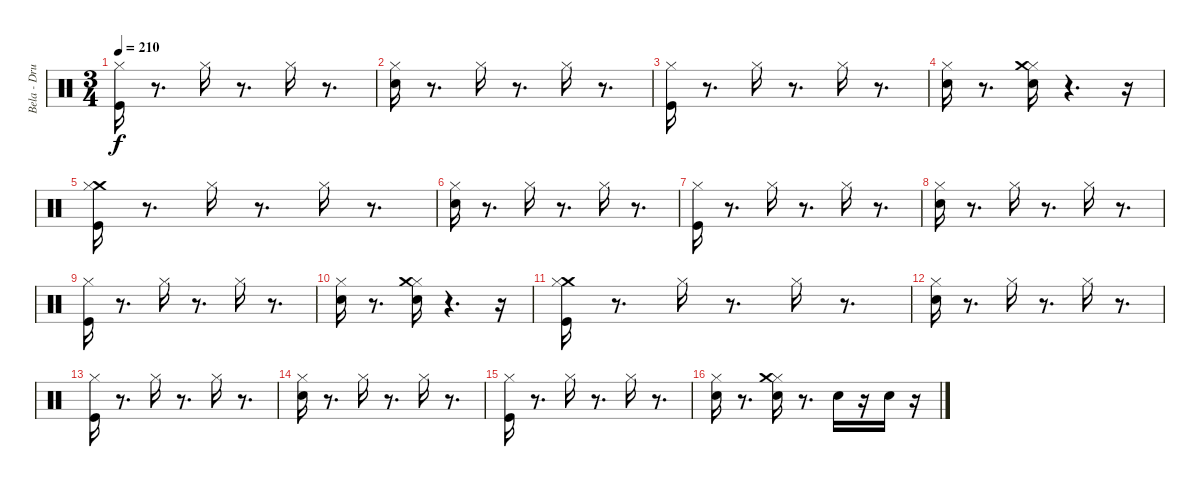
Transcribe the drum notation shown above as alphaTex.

\track ("Bela - Drums" "Bela - Dru") {instrument percussion}
\staff {score}
\articulation defaults
\ts (3 4)
\tempo 210
\clef neutral
\ks c
("Kick (hit)" "Hi-Hat (closed)").16{dy f} r.8{d} "Hi-Hat (closed)".16 r.8{d} "Hi-Hat (closed)".16 r.8{d} |
("Hi-Hat (closed)" "Electric Snare (hit)").16 r.8{d} "Hi-Hat (closed)".16 r.8{d} "Hi-Hat (closed)".16 r.8{d} |
("Kick (hit)" "Hi-Hat (closed)").16 r.8{d} "Hi-Hat (closed)".16 r.8{d} "Hi-Hat (closed)".16 r.8{d} |
("Hi-Hat (closed)" "Electric Snare (hit)").16 r.8{d} ("Hi-Hat (closed)" "Electric Snare (hit)" "Crash medium (hit)").16 r.4{d} r.16 |
("Kick (hit)" "Crash medium (hit)" "Hi-Hat (closed)").16 r.8{d} "Hi-Hat (closed)".16 r.8{d} "Hi-Hat (closed)".16 r.8{d} |
("Hi-Hat (closed)" "Electric Snare (hit)").16 r.8{d} "Hi-Hat (closed)".16 r.8{d} "Hi-Hat (closed)".16 r.8{d} |
("Kick (hit)" "Hi-Hat (closed)").16 r.8{d} "Hi-Hat (closed)".16 r.8{d} "Hi-Hat (closed)".16 r.8{d} |
("Hi-Hat (closed)" "Electric Snare (hit)").16 r.8{d} "Hi-Hat (closed)".16 r.8{d} "Hi-Hat (closed)".16 r.8{d} |
("Kick (hit)" "Hi-Hat (closed)").16 r.8{d} "Hi-Hat (closed)".16 r.8{d} "Hi-Hat (closed)".16 r.8{d} |
("Hi-Hat (closed)" "Electric Snare (hit)").16 r.8{d} ("Hi-Hat (closed)" "Electric Snare (hit)" "Crash medium (hit)").16 r.4{d} r.16 |
("Kick (hit)" "Crash medium (hit)" "Hi-Hat (closed)").16 r.8{d} "Hi-Hat (closed)".16 r.8{d} "Hi-Hat (closed)".16 r.8{d} |
("Hi-Hat (closed)" "Electric Snare (hit)").16 r.8{d} "Hi-Hat (closed)".16 r.8{d} "Hi-Hat (closed)".16 r.8{d} |
("Kick (hit)" "Hi-Hat (closed)").16 r.8{d} "Hi-Hat (closed)".16 r.8{d} "Hi-Hat (closed)".16 r.8{d} |
("Hi-Hat (closed)" "Electric Snare (hit)").16 r.8{d} "Hi-Hat (closed)".16 r.8{d} "Hi-Hat (closed)".16 r.8{d} |
("Kick (hit)" "Hi-Hat (closed)").16 r.8{d} "Hi-Hat (closed)".16 r.8{d} "Hi-Hat (closed)".16 r.8{d} |
("Hi-Hat (closed)" "Electric Snare (hit)").16 r.8{d} ("Hi-Hat (closed)" "Electric Snare (hit)" "Crash medium (hit)").16 r.8{d} "Electric Snare (hit)".16 r.16 "Electric Snare (hit)".16 r.16
